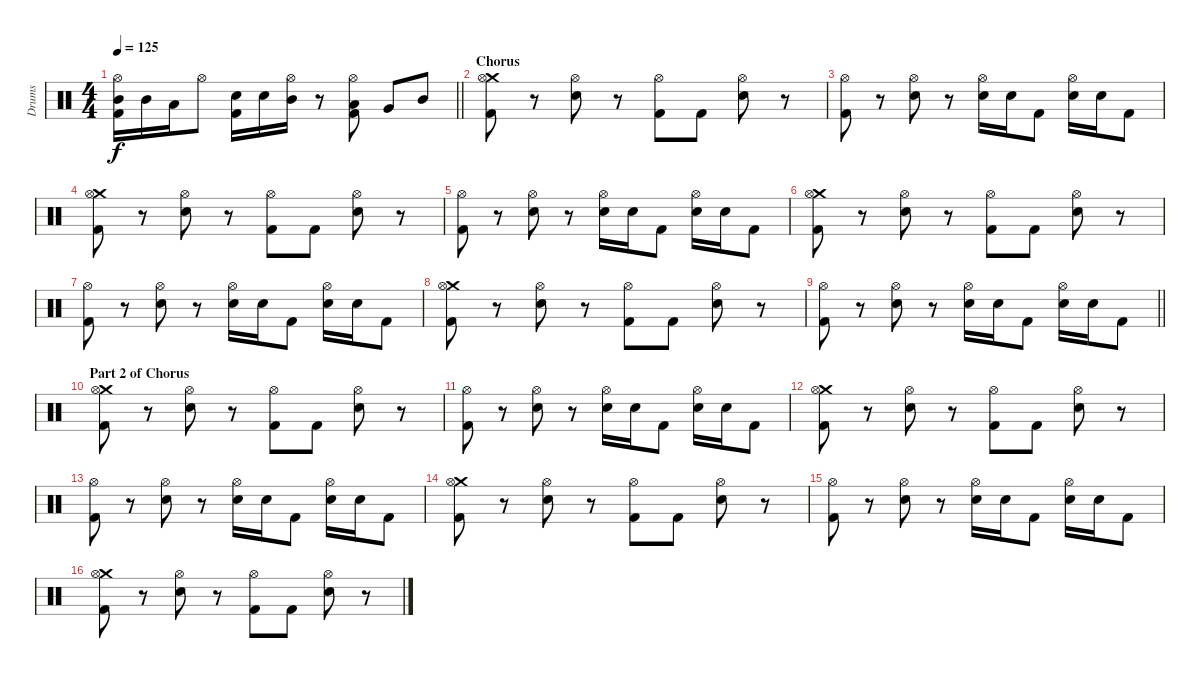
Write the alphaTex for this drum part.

\track ("Drums" "Drums") {instrument percussion}
\staff {score}
\articulation defaults
\ts (4 4)
\tempo 125
\clef neutral
\barLineRight lightlight
\ks c
("Hi-Hat (open)" "Mid Tom (hit)" "Kick (hit) 2").16{dy f} "Mid Tom (hit)".16 "Low Tom (hit)".16 "Hi-Hat (open)".8 ("Electric Snare (hit)" "Kick (hit) 2").16 "Electric Snare (hit)".16 ("Hi-Hat (open)" "Mid Tom (hit)").16 r.8 ("Hi-Hat (open)" "Low Tom (hit)" "Kick (hit) 2").8 "Very Low Tom (hit)".8 "Mid Tom (hit)".8 |
\section ("" "Chorus")
("Crash medium (hit)" "Hi-Hat (open)" "Kick (hit) 2").8 r.8 ("Hi-Hat (open)" "Electric Snare (hit)").8 r.8 ("Hi-Hat (open)" "Kick (hit) 2").8 "Kick (hit) 2".8 ("Hi-Hat (open)" "Electric Snare (hit)").8 r.8 |
("Hi-Hat (open)" "Kick (hit) 2").8 r.8 ("Hi-Hat (open)" "Electric Snare (hit)").8 r.8 ("Hi-Hat (open)" "Electric Snare (hit)").16 "Electric Snare (hit)".16 "Kick (hit) 2".8 ("Hi-Hat (open)" "Electric Snare (hit)").16 "Electric Snare (hit)".16 "Kick (hit) 2".8 |
("Crash medium (hit)" "Hi-Hat (open)" "Kick (hit) 2").8 r.8 ("Hi-Hat (open)" "Electric Snare (hit)").8 r.8 ("Hi-Hat (open)" "Kick (hit) 2").8 "Kick (hit) 2".8 ("Hi-Hat (open)" "Electric Snare (hit)").8 r.8 |
("Hi-Hat (open)" "Kick (hit) 2").8 r.8 ("Hi-Hat (open)" "Electric Snare (hit)").8 r.8 ("Hi-Hat (open)" "Electric Snare (hit)").16 "Electric Snare (hit)".16 "Kick (hit) 2".8 ("Hi-Hat (open)" "Electric Snare (hit)").16 "Electric Snare (hit)".16 "Kick (hit) 2".8 |
("Crash medium (hit)" "Hi-Hat (open)" "Kick (hit) 2").8 r.8 ("Hi-Hat (open)" "Electric Snare (hit)").8 r.8 ("Hi-Hat (open)" "Kick (hit) 2").8 "Kick (hit) 2".8 ("Hi-Hat (open)" "Electric Snare (hit)").8 r.8 |
("Hi-Hat (open)" "Kick (hit) 2").8 r.8 ("Hi-Hat (open)" "Electric Snare (hit)").8 r.8 ("Hi-Hat (open)" "Electric Snare (hit)").16 "Electric Snare (hit)".16 "Kick (hit) 2".8 ("Hi-Hat (open)" "Electric Snare (hit)").16 "Electric Snare (hit)".16 "Kick (hit) 2".8 |
("Crash medium (hit)" "Hi-Hat (open)" "Kick (hit) 2").8 r.8 ("Hi-Hat (open)" "Electric Snare (hit)").8 r.8 ("Hi-Hat (open)" "Kick (hit) 2").8 "Kick (hit) 2".8 ("Hi-Hat (open)" "Electric Snare (hit)").8 r.8 |
\barLineRight lightlight
("Hi-Hat (open)" "Kick (hit) 2").8 r.8 ("Hi-Hat (open)" "Electric Snare (hit)").8 r.8 ("Hi-Hat (open)" "Electric Snare (hit)").16 "Electric Snare (hit)".16 "Kick (hit) 2".8 ("Hi-Hat (open)" "Electric Snare (hit)").16 "Electric Snare (hit)".16 "Kick (hit) 2".8 |
\section ("" "Part 2 of Chorus")
("Crash medium (hit)" "Hi-Hat (open)" "Kick (hit) 2").8 r.8 ("Hi-Hat (open)" "Electric Snare (hit)").8 r.8 ("Hi-Hat (open)" "Kick (hit) 2").8 "Kick (hit) 2".8 ("Hi-Hat (open)" "Electric Snare (hit)").8 r.8 |
("Hi-Hat (open)" "Kick (hit) 2").8 r.8 ("Hi-Hat (open)" "Electric Snare (hit)").8 r.8 ("Hi-Hat (open)" "Electric Snare (hit)").16 "Electric Snare (hit)".16 "Kick (hit) 2".8 ("Hi-Hat (open)" "Electric Snare (hit)").16 "Electric Snare (hit)".16 "Kick (hit) 2".8 |
("Crash medium (hit)" "Hi-Hat (open)" "Kick (hit) 2").8 r.8 ("Hi-Hat (open)" "Electric Snare (hit)").8 r.8 ("Hi-Hat (open)" "Kick (hit) 2").8 "Kick (hit) 2".8 ("Hi-Hat (open)" "Electric Snare (hit)").8 r.8 |
("Hi-Hat (open)" "Kick (hit) 2").8 r.8 ("Hi-Hat (open)" "Electric Snare (hit)").8 r.8 ("Hi-Hat (open)" "Electric Snare (hit)").16 "Electric Snare (hit)".16 "Kick (hit) 2".8 ("Hi-Hat (open)" "Electric Snare (hit)").16 "Electric Snare (hit)".16 "Kick (hit) 2".8 |
("Crash medium (hit)" "Hi-Hat (open)" "Kick (hit) 2").8 r.8 ("Hi-Hat (open)" "Electric Snare (hit)").8 r.8 ("Hi-Hat (open)" "Kick (hit) 2").8 "Kick (hit) 2".8 ("Hi-Hat (open)" "Electric Snare (hit)").8 r.8 |
("Hi-Hat (open)" "Kick (hit) 2").8 r.8 ("Hi-Hat (open)" "Electric Snare (hit)").8 r.8 ("Hi-Hat (open)" "Electric Snare (hit)").16 "Electric Snare (hit)".16 "Kick (hit) 2".8 ("Hi-Hat (open)" "Electric Snare (hit)").16 "Electric Snare (hit)".16 "Kick (hit) 2".8 |
("Crash medium (hit)" "Hi-Hat (open)" "Kick (hit) 2").8 r.8 ("Hi-Hat (open)" "Electric Snare (hit)").8 r.8 ("Hi-Hat (open)" "Kick (hit) 2").8 "Kick (hit) 2".8 ("Hi-Hat (open)" "Electric Snare (hit)").8 r.8
